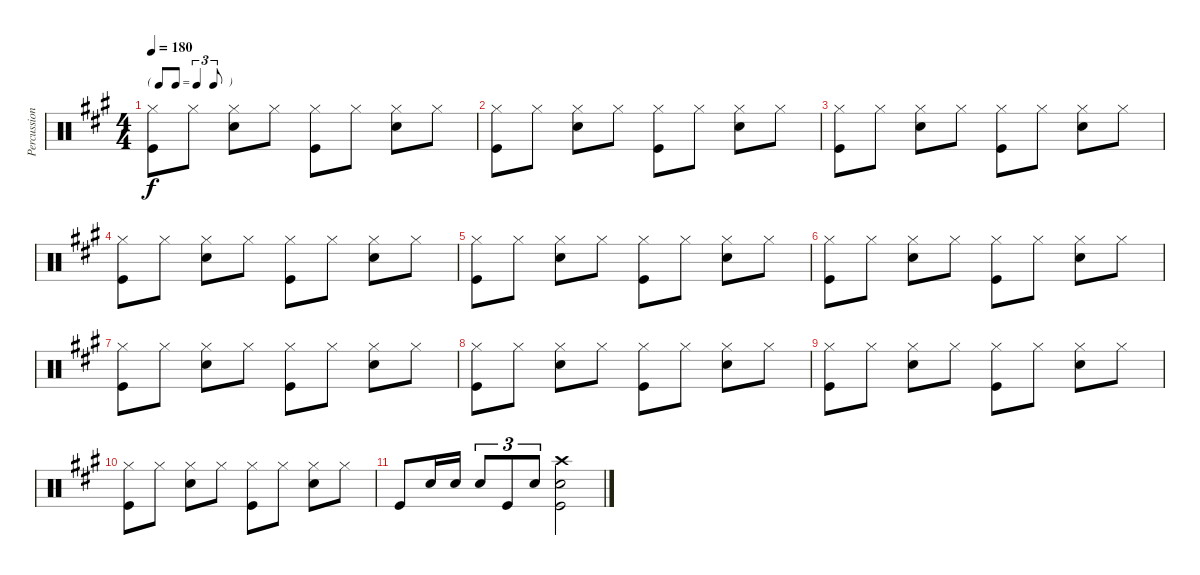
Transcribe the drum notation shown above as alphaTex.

\track ("Percussion" "Percussion") {instrument percussion}
\staff {score}
\articulation defaults
\ts (4 4)
\tf triplet8th
\tempo 180
\clef neutral
\ks a
("Hi-Hat (closed)" "Kick (hit)").8{dy f} "Hi-Hat (closed)".8 ("Hi-Hat (closed)" "Snare (hit) 2").8 "Hi-Hat (closed)".8 ("Hi-Hat (closed)" "Kick (hit)").8 "Hi-Hat (closed)".8 ("Hi-Hat (closed)" "Snare (hit) 2").8 "Hi-Hat (closed)".8 |
("Hi-Hat (closed)" "Kick (hit)").8 "Hi-Hat (closed)".8 ("Hi-Hat (closed)" "Snare (hit) 2").8 "Hi-Hat (closed)".8 ("Hi-Hat (closed)" "Kick (hit)").8 "Hi-Hat (closed)".8 ("Hi-Hat (closed)" "Snare (hit) 2").8 "Hi-Hat (closed)".8 |
("Hi-Hat (closed)" "Kick (hit)").8 "Hi-Hat (closed)".8 ("Hi-Hat (closed)" "Snare (hit) 2").8 "Hi-Hat (closed)".8 ("Hi-Hat (closed)" "Kick (hit)").8 "Hi-Hat (closed)".8 ("Hi-Hat (closed)" "Snare (hit) 2").8 "Hi-Hat (closed)".8 |
("Hi-Hat (closed)" "Kick (hit)").8 "Hi-Hat (closed)".8 ("Hi-Hat (closed)" "Snare (hit) 2").8 "Hi-Hat (closed)".8 ("Hi-Hat (closed)" "Kick (hit)").8 "Hi-Hat (closed)".8 ("Hi-Hat (closed)" "Snare (hit) 2").8 "Hi-Hat (closed)".8 |
("Hi-Hat (closed)" "Kick (hit)").8 "Hi-Hat (closed)".8 ("Hi-Hat (closed)" "Snare (hit) 2").8 "Hi-Hat (closed)".8 ("Hi-Hat (closed)" "Kick (hit)").8 "Hi-Hat (closed)".8 ("Hi-Hat (closed)" "Snare (hit) 2").8 "Hi-Hat (closed)".8 |
("Hi-Hat (closed)" "Kick (hit)").8 "Hi-Hat (closed)".8 ("Hi-Hat (closed)" "Snare (hit) 2").8 "Hi-Hat (closed)".8 ("Hi-Hat (closed)" "Kick (hit)").8 "Hi-Hat (closed)".8 ("Hi-Hat (closed)" "Snare (hit) 2").8 "Hi-Hat (closed)".8 |
("Hi-Hat (closed)" "Kick (hit)").8 "Hi-Hat (closed)".8 ("Hi-Hat (closed)" "Snare (hit) 2").8 "Hi-Hat (closed)".8 ("Hi-Hat (closed)" "Kick (hit)").8 "Hi-Hat (closed)".8 ("Hi-Hat (closed)" "Snare (hit) 2").8 "Hi-Hat (closed)".8 |
("Hi-Hat (closed)" "Kick (hit)").8 "Hi-Hat (closed)".8 ("Hi-Hat (closed)" "Snare (hit) 2").8 "Hi-Hat (closed)".8 ("Hi-Hat (closed)" "Kick (hit)").8 "Hi-Hat (closed)".8 ("Hi-Hat (closed)" "Snare (hit) 2").8 "Hi-Hat (closed)".8 |
("Hi-Hat (closed)" "Kick (hit)").8 "Hi-Hat (closed)".8 ("Hi-Hat (closed)" "Snare (hit) 2").8 "Hi-Hat (closed)".8 ("Hi-Hat (closed)" "Kick (hit)").8 "Hi-Hat (closed)".8 ("Hi-Hat (closed)" "Snare (hit) 2").8 "Hi-Hat (closed)".8 |
("Hi-Hat (closed)" "Kick (hit)").8 "Hi-Hat (closed)".8 ("Hi-Hat (closed)" "Snare (hit) 2").8 "Hi-Hat (closed)".8 ("Hi-Hat (closed)" "Kick (hit)").8 "Hi-Hat (closed)".8 ("Hi-Hat (closed)" "Snare (hit) 2").8 "Hi-Hat (closed)".8 |
"Kick (hit)".8 "Snare (hit) 2".16 "Snare (hit) 2".16 "Snare (hit) 2".8{tu (3 2)} "Kick (hit)".8{tu (3 2)} "Snare (hit) 2".8{tu (3 2)} ("Crash high (hit)" "Snare (hit) 2" "Kick (hit)").2
